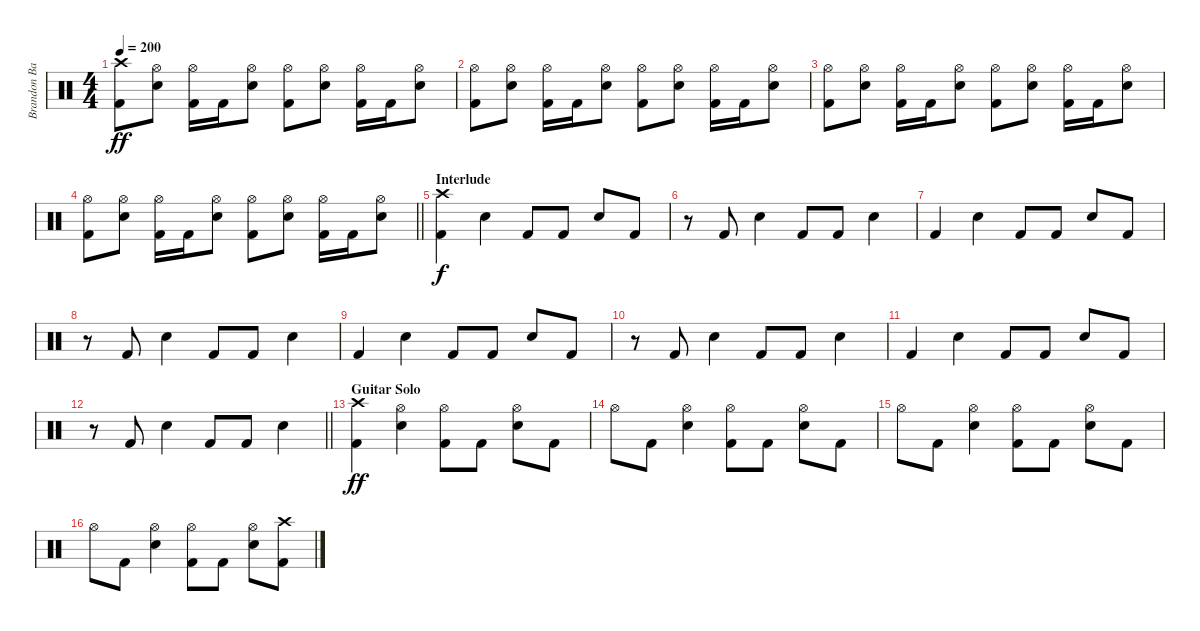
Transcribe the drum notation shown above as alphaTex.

\track ("Brandon Barnes - Drums" "Brandon Ba") {instrument percussion}
\staff {score}
\articulation defaults
\ts (4 4)
\tempo 200
\clef neutral
\ks c
("Crash high (hit)" "Kick (hit) 2").8{dy ff} ("Snare (hit) 2" "Hi-Hat (open)").8 ("Kick (hit) 2" "Hi-Hat (open)").16 "Kick (hit) 2".16 ("Snare (hit) 2" "Hi-Hat (open)").8 ("Kick (hit) 2" "Hi-Hat (open)").8 ("Snare (hit) 2" "Hi-Hat (open)").8 ("Kick (hit) 2" "Hi-Hat (open)").16 "Kick (hit) 2".16 ("Snare (hit) 2" "Hi-Hat (open)").8 |
("Kick (hit) 2" "Hi-Hat (open)").8 ("Snare (hit) 2" "Hi-Hat (open)").8 ("Kick (hit) 2" "Hi-Hat (open)").16 "Kick (hit) 2".16 ("Snare (hit) 2" "Hi-Hat (open)").8 ("Kick (hit) 2" "Hi-Hat (open)").8 ("Snare (hit) 2" "Hi-Hat (open)").8 ("Kick (hit) 2" "Hi-Hat (open)").16 "Kick (hit) 2".16 ("Snare (hit) 2" "Hi-Hat (open)").8 |
("Kick (hit) 2" "Hi-Hat (open)").8 ("Snare (hit) 2" "Hi-Hat (open)").8 ("Kick (hit) 2" "Hi-Hat (open)").16 "Kick (hit) 2".16 ("Snare (hit) 2" "Hi-Hat (open)").8 ("Kick (hit) 2" "Hi-Hat (open)").8 ("Snare (hit) 2" "Hi-Hat (open)").8 ("Kick (hit) 2" "Hi-Hat (open)").16 "Kick (hit) 2".16 ("Snare (hit) 2" "Hi-Hat (open)").8 |
\barLineRight lightlight
("Kick (hit) 2" "Hi-Hat (open)").8 ("Snare (hit) 2" "Hi-Hat (open)").8 ("Kick (hit) 2" "Hi-Hat (open)").16 "Kick (hit) 2".16 ("Snare (hit) 2" "Hi-Hat (open)").8 ("Kick (hit) 2" "Hi-Hat (open)").8 ("Snare (hit) 2" "Hi-Hat (open)").8 ("Kick (hit) 2" "Hi-Hat (open)").16 "Kick (hit) 2".16 ("Snare (hit) 2" "Hi-Hat (open)").8 |
\section ("" "Interlude")
("Kick (hit) 2" "Crash high (hit)").4{dy f} "Snare (hit) 2".4 "Kick (hit) 2".8 "Kick (hit) 2".8 "Snare (hit) 2".8 "Kick (hit) 2".8 |
r.8 "Kick (hit) 2".8 "Snare (hit) 2".4 "Kick (hit) 2".8 "Kick (hit) 2".8 "Snare (hit) 2".4 |
"Kick (hit) 2".4 "Snare (hit) 2".4 "Kick (hit) 2".8 "Kick (hit) 2".8 "Snare (hit) 2".8 "Kick (hit) 2".8 |
r.8 "Kick (hit) 2".8 "Snare (hit) 2".4 "Kick (hit) 2".8 "Kick (hit) 2".8 "Snare (hit) 2".4 |
"Kick (hit) 2".4 "Snare (hit) 2".4 "Kick (hit) 2".8 "Kick (hit) 2".8 "Snare (hit) 2".8 "Kick (hit) 2".8 |
r.8 "Kick (hit) 2".8 "Snare (hit) 2".4 "Kick (hit) 2".8 "Kick (hit) 2".8 "Snare (hit) 2".4 |
"Kick (hit) 2".4 "Snare (hit) 2".4 "Kick (hit) 2".8 "Kick (hit) 2".8 "Snare (hit) 2".8 "Kick (hit) 2".8 |
\barLineRight lightlight
r.8 "Kick (hit) 2".8 "Snare (hit) 2".4 "Kick (hit) 2".8 "Kick (hit) 2".8 "Snare (hit) 2".4 |
\section ("" "Guitar Solo")
("Kick (hit) 2" "Crash high (hit)").4{dy ff} ("Snare (hit) 2" "Hi-Hat (open)").4 ("Kick (hit) 2" "Hi-Hat (open)").8 "Kick (hit) 2".8 ("Snare (hit) 2" "Hi-Hat (open)").8 "Kick (hit) 2".8 |
"Hi-Hat (open)".8 "Kick (hit) 2".8 ("Snare (hit) 2" "Hi-Hat (open)").4 ("Kick (hit) 2" "Hi-Hat (open)").8 "Kick (hit) 2".8 ("Snare (hit) 2" "Hi-Hat (open)").8 "Kick (hit) 2".8 |
"Hi-Hat (open)".8 "Kick (hit) 2".8 ("Snare (hit) 2" "Hi-Hat (open)").4 ("Kick (hit) 2" "Hi-Hat (open)").8 "Kick (hit) 2".8 ("Snare (hit) 2" "Hi-Hat (open)").8 "Kick (hit) 2".8 |
"Hi-Hat (open)".8 "Kick (hit) 2".8 ("Snare (hit) 2" "Hi-Hat (open)").4 ("Kick (hit) 2" "Hi-Hat (open)").8 "Kick (hit) 2".8 ("Snare (hit) 2" "Hi-Hat (open)").8 ("Kick (hit) 2" "Crash high (hit)").8
